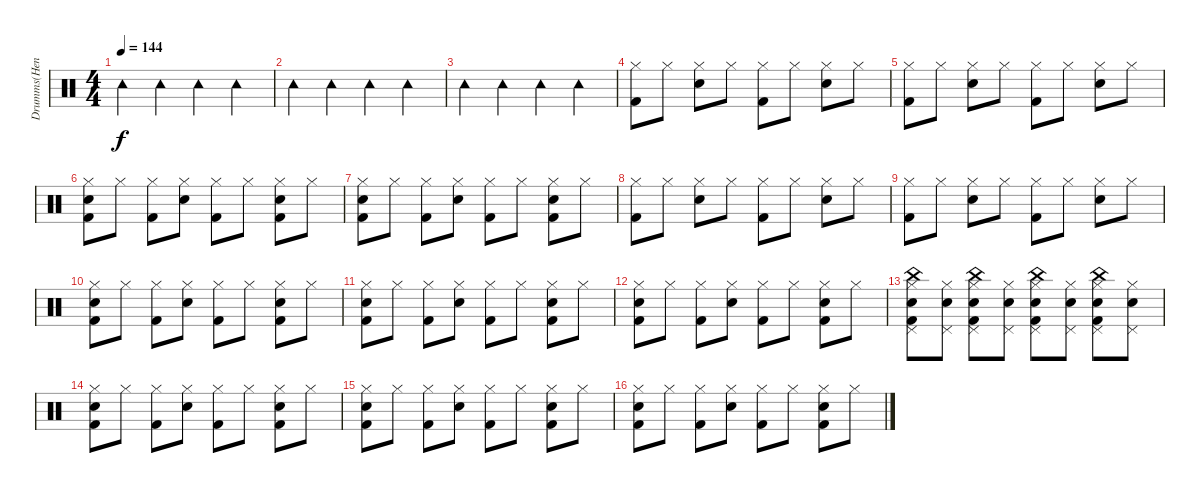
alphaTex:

\track ("Drumms(Henrik)" "Drumms(Hen") {instrument percussion}
\staff {score}
\articulation defaults
\ts (4 4)
\tempo 144
\clef neutral
\ks c "Tambourine (hit)".4{dy f} "Tambourine (hit)".4 "Tambourine (hit)".4 "Tambourine (hit)".4
|
"Tambourine (hit)".4 "Tambourine (hit)".4 "Tambourine (hit)".4 "Tambourine (hit)".4 |
"Tambourine (hit)".4 "Tambourine (hit)".4 "Tambourine (hit)".4 "Tambourine (hit)".4 |
("Hi-Hat (closed)" "Kick (hit) 2").8 "Hi-Hat (closed)".8 ("Hi-Hat (closed)" "Electric Snare (hit)").8 "Hi-Hat (closed)".8 ("Hi-Hat (closed)" "Kick (hit) 2").8 "Hi-Hat (closed)".8 ("Hi-Hat (closed)" "Electric Snare (hit)").8 "Hi-Hat (closed)".8 |
("Hi-Hat (closed)" "Kick (hit) 2").8 "Hi-Hat (closed)".8 ("Hi-Hat (closed)" "Electric Snare (hit)").8 "Hi-Hat (closed)".8 ("Hi-Hat (closed)" "Kick (hit) 2").8 "Hi-Hat (closed)".8 ("Hi-Hat (closed)" "Electric Snare (hit)").8 "Hi-Hat (closed)".8 |
("Hi-Hat (closed)" "Kick (hit) 2" "Electric Snare (hit)").8 "Hi-Hat (closed)".8 ("Hi-Hat (closed)" "Kick (hit) 2").8 ("Hi-Hat (closed)" "Electric Snare (hit)").8 ("Hi-Hat (closed)" "Kick (hit) 2").8 "Hi-Hat (closed)".8 ("Hi-Hat (closed)" "Kick (hit) 2" "Electric Snare (hit)").8 "Hi-Hat (closed)".8 |
("Hi-Hat (closed)" "Kick (hit) 2" "Electric Snare (hit)").8 "Hi-Hat (closed)".8 ("Hi-Hat (closed)" "Kick (hit) 2").8 ("Hi-Hat (closed)" "Electric Snare (hit)").8 ("Hi-Hat (closed)" "Kick (hit) 2").8 "Hi-Hat (closed)".8 ("Hi-Hat (closed)" "Kick (hit) 2" "Electric Snare (hit)").8 "Hi-Hat (closed)".8 |
("Hi-Hat (closed)" "Kick (hit) 2").8 "Hi-Hat (closed)".8 ("Hi-Hat (closed)" "Electric Snare (hit)").8 "Hi-Hat (closed)".8 ("Hi-Hat (closed)" "Kick (hit) 2").8 "Hi-Hat (closed)".8 ("Hi-Hat (closed)" "Electric Snare (hit)").8 "Hi-Hat (closed)".8 |
("Hi-Hat (closed)" "Kick (hit) 2").8 "Hi-Hat (closed)".8 ("Hi-Hat (closed)" "Electric Snare (hit)").8 "Hi-Hat (closed)".8 ("Hi-Hat (closed)" "Kick (hit) 2").8 "Hi-Hat (closed)".8 ("Hi-Hat (closed)" "Electric Snare (hit)").8 "Hi-Hat (closed)".8 |
("Hi-Hat (closed)" "Kick (hit) 2" "Electric Snare (hit)").8 "Hi-Hat (closed)".8 ("Hi-Hat (closed)" "Kick (hit) 2").8 ("Hi-Hat (closed)" "Electric Snare (hit)").8 ("Hi-Hat (closed)" "Kick (hit) 2").8 "Hi-Hat (closed)".8 ("Hi-Hat (closed)" "Kick (hit) 2" "Electric Snare (hit)").8 "Hi-Hat (closed)".8 |
("Hi-Hat (closed)" "Kick (hit) 2" "Electric Snare (hit)").8 "Hi-Hat (closed)".8 ("Hi-Hat (closed)" "Kick (hit) 2").8 ("Hi-Hat (closed)" "Electric Snare (hit)").8 ("Hi-Hat (closed)" "Kick (hit) 2").8 "Hi-Hat (closed)".8 ("Hi-Hat (closed)" "Kick (hit) 2" "Electric Snare (hit)").8 "Hi-Hat (closed)".8 |
("Hi-Hat (closed)" "Kick (hit) 2" "Electric Snare (hit)").8 "Hi-Hat (closed)".8 ("Hi-Hat (closed)" "Kick (hit) 2").8 ("Hi-Hat (closed)" "Electric Snare (hit)").8 ("Hi-Hat (closed)" "Kick (hit) 2").8 "Hi-Hat (closed)".8 ("Hi-Hat (closed)" "Kick (hit) 2" "Electric Snare (hit)").8 "Hi-Hat (closed)".8 |
("Hi-Hat (closed)" "Pedal Hi-Hat (hit)" "Electric Snare (hit)" "China (hit)" "Kick (hit) 2").8 ("Hi-Hat (closed)" "Pedal Hi-Hat (hit)" "Electric Snare (hit)").8 ("Hi-Hat (closed)" "Pedal Hi-Hat (hit)" "Electric Snare (hit)" "China (hit)" "Kick (hit) 2").8 ("Hi-Hat (closed)" "Pedal Hi-Hat (hit)" "Electric Snare (hit)").8 ("Hi-Hat (closed)" "Pedal Hi-Hat (hit)" "Electric Snare (hit)" "China (hit)" "Kick (hit) 2").8 ("Hi-Hat (closed)" "Pedal Hi-Hat (hit)" "Electric Snare (hit)").8 ("Hi-Hat (closed)" "Pedal Hi-Hat (hit)" "Electric Snare (hit)" "China (hit)" "Kick (hit) 2").8 ("Hi-Hat (closed)" "Pedal Hi-Hat (hit)" "Electric Snare (hit)").8 |
("Hi-Hat (closed)" "Kick (hit) 2" "Electric Snare (hit)").8 "Hi-Hat (closed)".8 ("Hi-Hat (closed)" "Kick (hit) 2").8 ("Hi-Hat (closed)" "Electric Snare (hit)").8 ("Hi-Hat (closed)" "Kick (hit) 2").8 "Hi-Hat (closed)".8 ("Hi-Hat (closed)" "Kick (hit) 2" "Electric Snare (hit)").8 "Hi-Hat (closed)".8 |
("Hi-Hat (closed)" "Kick (hit) 2" "Electric Snare (hit)").8 "Hi-Hat (closed)".8 ("Hi-Hat (closed)" "Kick (hit) 2").8 ("Hi-Hat (closed)" "Electric Snare (hit)").8 ("Hi-Hat (closed)" "Kick (hit) 2").8 "Hi-Hat (closed)".8 ("Hi-Hat (closed)" "Kick (hit) 2" "Electric Snare (hit)").8 "Hi-Hat (closed)".8 |
("Hi-Hat (closed)" "Kick (hit) 2" "Electric Snare (hit)").8 "Hi-Hat (closed)".8 ("Hi-Hat (closed)" "Kick (hit) 2").8 ("Hi-Hat (closed)" "Electric Snare (hit)").8 ("Hi-Hat (closed)" "Kick (hit) 2").8 "Hi-Hat (closed)".8 ("Hi-Hat (closed)" "Kick (hit) 2" "Electric Snare (hit)").8 "Hi-Hat (closed)".8
